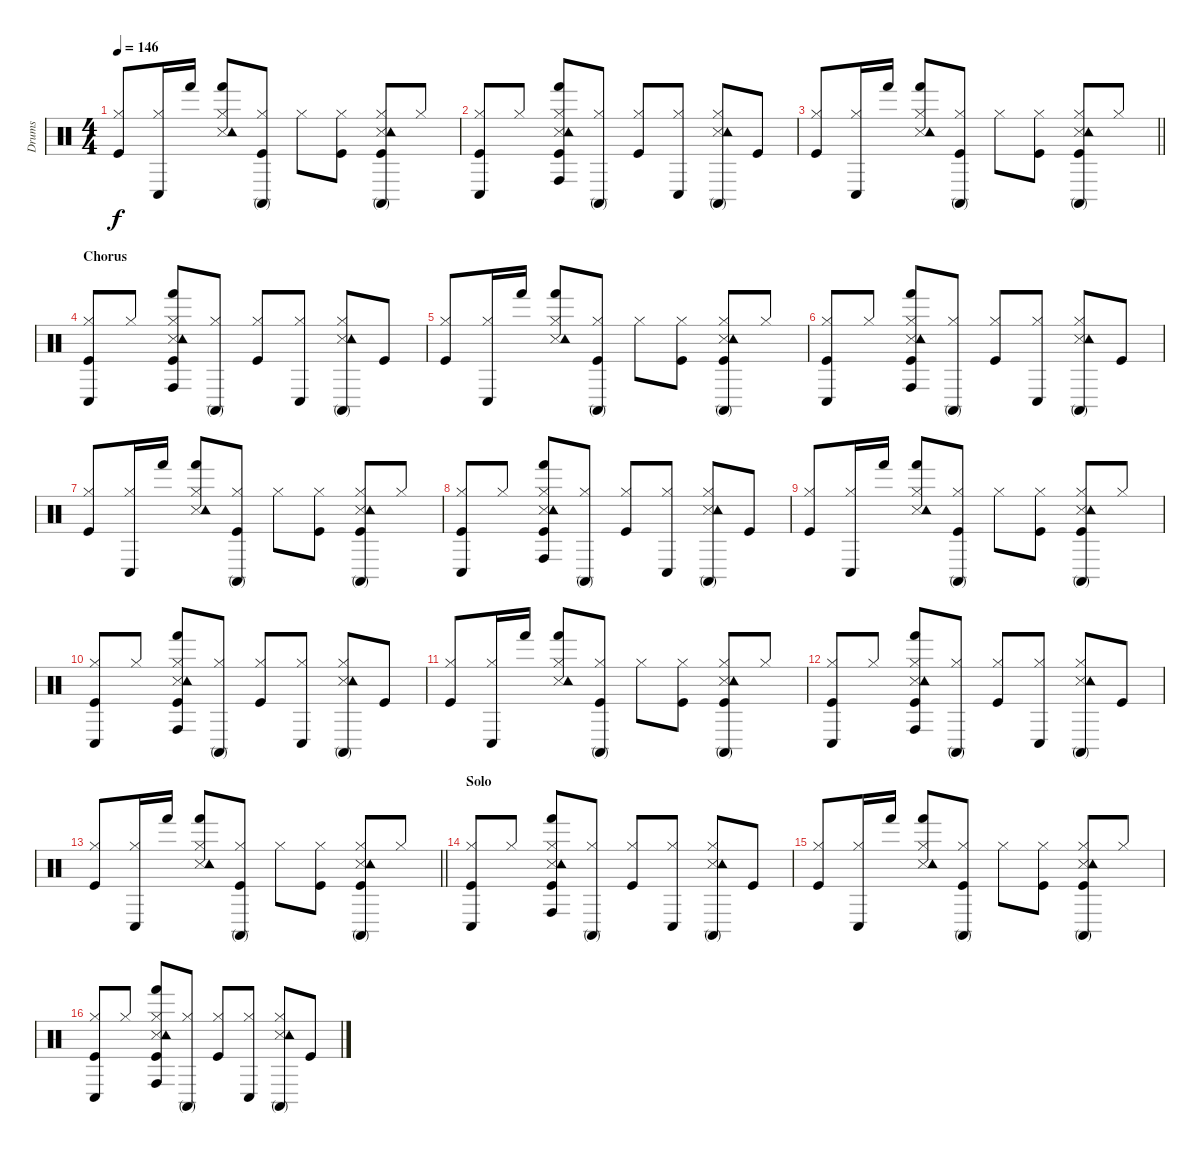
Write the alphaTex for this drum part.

\track ("Drums" "Drums") {instrument percussion}
\staff {score}
\articulation defaults
\ts (4 4)
\tempo 146
\clef neutral
\ks c
("Kick (hit)" "Hi-Hat (closed)").8{dy f} ("Hi-Hat (closed)" "Conga low (hit)").16 "Hand (hit)".16 ("Snare (side stick) 3" "Hi-Hat (closed)" "Tambourine (hit)" "Hand (hit)").8 ("Kick (hit)" "Hi-Hat (closed)" "Conga high (mute)").8 "Hi-Hat (closed)".8 ("Kick (hit)" "Hi-Hat (closed)").8 ("Kick (hit)" "Snare (side stick) 3" "Hi-Hat (closed)" "Tambourine (hit)" "Conga high (mute)").8 "Hi-Hat (closed)".8 |
("Kick (hit)" "Hi-Hat (closed)" "Conga low (hit)").8 "Hi-Hat (closed)".8 ("Kick (hit)" "Snare (side stick) 3" "Hi-Hat (closed)" "Tambourine (hit)" "Hand (hit)" "Conga high (hit)").8 ("Hi-Hat (closed)" "Conga high (mute)").8 ("Kick (hit)" "Hi-Hat (closed)").8 ("Hi-Hat (closed)" "Conga low (hit)").8 ("Snare (side stick) 3" "Hi-Hat (closed)" "Tambourine (hit)" "Conga high (mute)").8 "Kick (hit)".8 |
\barLineRight lightlight
("Kick (hit)" "Hi-Hat (closed)").8 ("Hi-Hat (closed)" "Conga low (hit)").16 "Hand (hit)".16 ("Snare (side stick) 3" "Hi-Hat (closed)" "Tambourine (hit)" "Hand (hit)").8 ("Kick (hit)" "Hi-Hat (closed)" "Conga high (mute)").8 "Hi-Hat (closed)".8 ("Kick (hit)" "Hi-Hat (closed)").8 ("Kick (hit)" "Snare (side stick) 3" "Hi-Hat (closed)" "Tambourine (hit)" "Conga high (mute)").8 "Hi-Hat (closed)".8 |
\section ("" "Chorus")
("Kick (hit)" "Hi-Hat (closed)" "Conga low (hit)").8 "Hi-Hat (closed)".8 ("Kick (hit)" "Snare (side stick) 3" "Hi-Hat (closed)" "Tambourine (hit)" "Hand (hit)" "Conga high (hit)").8 ("Hi-Hat (closed)" "Conga high (mute)").8 ("Kick (hit)" "Hi-Hat (closed)").8 ("Hi-Hat (closed)" "Conga low (hit)").8 ("Snare (side stick) 3" "Hi-Hat (closed)" "Tambourine (hit)" "Conga high (mute)").8 "Kick (hit)".8 |
("Kick (hit)" "Hi-Hat (closed)").8 ("Hi-Hat (closed)" "Conga low (hit)").16 "Hand (hit)".16 ("Snare (side stick) 3" "Hi-Hat (closed)" "Tambourine (hit)" "Hand (hit)").8 ("Kick (hit)" "Hi-Hat (closed)" "Conga high (mute)").8 "Hi-Hat (closed)".8 ("Kick (hit)" "Hi-Hat (closed)").8 ("Kick (hit)" "Snare (side stick) 3" "Hi-Hat (closed)" "Tambourine (hit)" "Conga high (mute)").8 "Hi-Hat (closed)".8 |
("Kick (hit)" "Hi-Hat (closed)" "Conga low (hit)").8 "Hi-Hat (closed)".8 ("Kick (hit)" "Snare (side stick) 3" "Hi-Hat (closed)" "Tambourine (hit)" "Hand (hit)" "Conga high (hit)").8 ("Hi-Hat (closed)" "Conga high (mute)").8 ("Kick (hit)" "Hi-Hat (closed)").8 ("Hi-Hat (closed)" "Conga low (hit)").8 ("Snare (side stick) 3" "Hi-Hat (closed)" "Tambourine (hit)" "Conga high (mute)").8 "Kick (hit)".8 |
("Kick (hit)" "Hi-Hat (closed)").8 ("Hi-Hat (closed)" "Conga low (hit)").16 "Hand (hit)".16 ("Snare (side stick) 3" "Hi-Hat (closed)" "Tambourine (hit)" "Hand (hit)").8 ("Kick (hit)" "Hi-Hat (closed)" "Conga high (mute)").8 "Hi-Hat (closed)".8 ("Kick (hit)" "Hi-Hat (closed)").8 ("Kick (hit)" "Snare (side stick) 3" "Hi-Hat (closed)" "Tambourine (hit)" "Conga high (mute)").8 "Hi-Hat (closed)".8 |
("Kick (hit)" "Hi-Hat (closed)" "Conga low (hit)").8 "Hi-Hat (closed)".8 ("Kick (hit)" "Snare (side stick) 3" "Hi-Hat (closed)" "Tambourine (hit)" "Hand (hit)" "Conga high (hit)").8 ("Hi-Hat (closed)" "Conga high (mute)").8 ("Kick (hit)" "Hi-Hat (closed)").8 ("Hi-Hat (closed)" "Conga low (hit)").8 ("Snare (side stick) 3" "Hi-Hat (closed)" "Tambourine (hit)" "Conga high (mute)").8 "Kick (hit)".8 |
("Kick (hit)" "Hi-Hat (closed)").8 ("Hi-Hat (closed)" "Conga low (hit)").16 "Hand (hit)".16 ("Snare (side stick) 3" "Hi-Hat (closed)" "Tambourine (hit)" "Hand (hit)").8 ("Kick (hit)" "Hi-Hat (closed)" "Conga high (mute)").8 "Hi-Hat (closed)".8 ("Kick (hit)" "Hi-Hat (closed)").8 ("Kick (hit)" "Snare (side stick) 3" "Hi-Hat (closed)" "Tambourine (hit)" "Conga high (mute)").8 "Hi-Hat (closed)".8 |
("Kick (hit)" "Hi-Hat (closed)" "Conga low (hit)").8 "Hi-Hat (closed)".8 ("Kick (hit)" "Snare (side stick) 3" "Hi-Hat (closed)" "Tambourine (hit)" "Hand (hit)" "Conga high (hit)").8 ("Hi-Hat (closed)" "Conga high (mute)").8 ("Kick (hit)" "Hi-Hat (closed)").8 ("Hi-Hat (closed)" "Conga low (hit)").8 ("Snare (side stick) 3" "Hi-Hat (closed)" "Tambourine (hit)" "Conga high (mute)").8 "Kick (hit)".8 |
("Kick (hit)" "Hi-Hat (closed)").8 ("Hi-Hat (closed)" "Conga low (hit)").16 "Hand (hit)".16 ("Snare (side stick) 3" "Hi-Hat (closed)" "Tambourine (hit)" "Hand (hit)").8 ("Kick (hit)" "Hi-Hat (closed)" "Conga high (mute)").8 "Hi-Hat (closed)".8 ("Kick (hit)" "Hi-Hat (closed)").8 ("Kick (hit)" "Snare (side stick) 3" "Hi-Hat (closed)" "Tambourine (hit)" "Conga high (mute)").8 "Hi-Hat (closed)".8 |
("Kick (hit)" "Hi-Hat (closed)" "Conga low (hit)").8 "Hi-Hat (closed)".8 ("Kick (hit)" "Snare (side stick) 3" "Hi-Hat (closed)" "Tambourine (hit)" "Hand (hit)" "Conga high (hit)").8 ("Hi-Hat (closed)" "Conga high (mute)").8 ("Kick (hit)" "Hi-Hat (closed)").8 ("Hi-Hat (closed)" "Conga low (hit)").8 ("Snare (side stick) 3" "Hi-Hat (closed)" "Tambourine (hit)" "Conga high (mute)").8 "Kick (hit)".8 |
\barLineRight lightlight
("Kick (hit)" "Hi-Hat (closed)").8 ("Hi-Hat (closed)" "Conga low (hit)").16 "Hand (hit)".16 ("Snare (side stick) 3" "Hi-Hat (closed)" "Tambourine (hit)" "Hand (hit)").8 ("Kick (hit)" "Hi-Hat (closed)" "Conga high (mute)").8 "Hi-Hat (closed)".8 ("Kick (hit)" "Hi-Hat (closed)").8 ("Kick (hit)" "Snare (side stick) 3" "Hi-Hat (closed)" "Tambourine (hit)" "Conga high (mute)").8 "Hi-Hat (closed)".8 |
\section ("" "Solo")
("Kick (hit)" "Hi-Hat (closed)" "Conga low (hit)").8 "Hi-Hat (closed)".8 ("Kick (hit)" "Snare (side stick) 3" "Hi-Hat (closed)" "Tambourine (hit)" "Hand (hit)" "Conga high (hit)").8 ("Hi-Hat (closed)" "Conga high (mute)").8 ("Kick (hit)" "Hi-Hat (closed)").8 ("Hi-Hat (closed)" "Conga low (hit)").8 ("Snare (side stick) 3" "Hi-Hat (closed)" "Tambourine (hit)" "Conga high (mute)").8 "Kick (hit)".8 |
("Kick (hit)" "Hi-Hat (closed)").8 ("Hi-Hat (closed)" "Conga low (hit)").16 "Hand (hit)".16 ("Snare (side stick) 3" "Hi-Hat (closed)" "Tambourine (hit)" "Hand (hit)").8 ("Kick (hit)" "Hi-Hat (closed)" "Conga high (mute)").8 "Hi-Hat (closed)".8 ("Kick (hit)" "Hi-Hat (closed)").8 ("Kick (hit)" "Snare (side stick) 3" "Hi-Hat (closed)" "Tambourine (hit)" "Conga high (mute)").8 "Hi-Hat (closed)".8 |
("Kick (hit)" "Hi-Hat (closed)" "Conga low (hit)").8 "Hi-Hat (closed)".8 ("Kick (hit)" "Snare (side stick) 3" "Hi-Hat (closed)" "Tambourine (hit)" "Hand (hit)" "Conga high (hit)").8 ("Hi-Hat (closed)" "Conga high (mute)").8 ("Kick (hit)" "Hi-Hat (closed)").8 ("Hi-Hat (closed)" "Conga low (hit)").8 ("Snare (side stick) 3" "Hi-Hat (closed)" "Tambourine (hit)" "Conga high (mute)").8 "Kick (hit)".8
